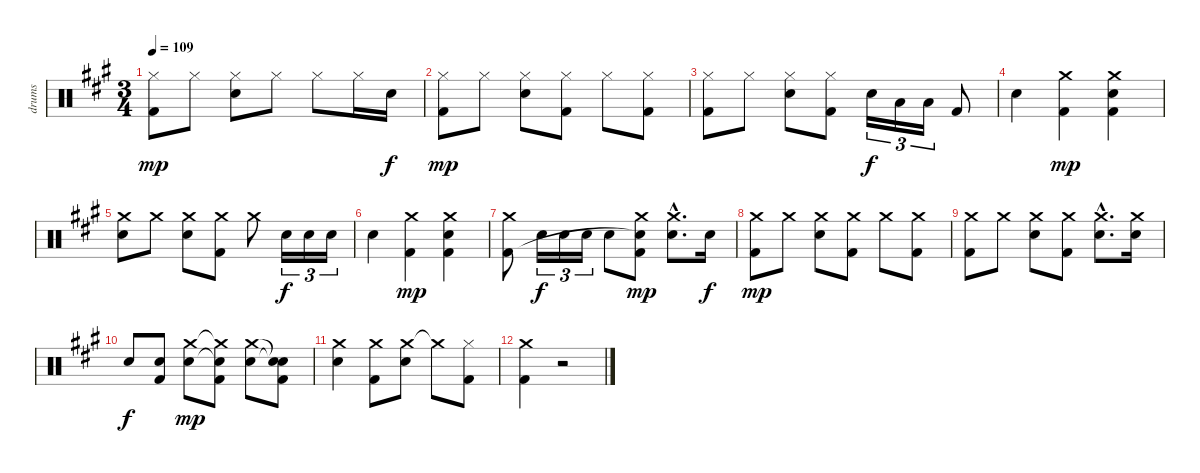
\track ("drums" "drums") {instrument percussion}
\staff {score}
\articulation defaults
\ts (3 4)
\tempo 109
\clef neutral
\ks a
("Hi-Hat (closed)" "Kick (hit) 2").8{dy mp} "Hi-Hat (closed)".8 ("Hi-Hat (closed)" "Snare (hit) 2").8 "Hi-Hat (closed)".8 "Hi-Hat (closed)".8 "Hi-Hat (closed)".16 "Snare (hit) 2".16{dy f} |
("Hi-Hat (closed)" "Kick (hit) 2").8{dy mp} "Hi-Hat (closed)".8 ("Hi-Hat (closed)" "Snare (hit) 2").8 ("Hi-Hat (closed)" "Kick (hit) 2").8 "Hi-Hat (closed)".8 ("Hi-Hat (closed)" "Kick (hit) 2").8 |
("Hi-Hat (closed)" "Kick (hit) 2").8 "Hi-Hat (closed)".8 ("Hi-Hat (closed)" "Snare (hit) 2").8 ("Hi-Hat (closed)" "Kick (hit) 2").8 "Snare (hit) 2".16{tu (3 2) dy f} "Low Tom (hit)".16{tu (3 2)} "Low Tom (hit)".16{tu (3 2)} "Kick (hit) 2".8 |
"Snare (hit) 2".4 ("Crash medium (hit)" "Kick (hit) 2").4{dy mp} ("Crash medium (hit)" "Snare (hit) 2" "Kick (hit) 2").4 |
("Crash medium (hit)" "Snare (hit) 2").8 "Crash medium (hit)".8 ("Crash medium (hit)" "Snare (hit) 2").8 ("Crash medium (hit)" "Kick (hit) 2").8 "Crash medium (hit)".8 "Snare (hit) 2".16{tu (3 2) dy f} "Snare (hit) 2".16{tu (3 2)} "Snare (hit) 2".16{tu (3 2)} |
"Snare (hit) 2".4 ("Crash medium (hit)" "Kick (hit) 2").4{dy mp} ("Crash medium (hit)" "Snare (hit) 2" "Kick (hit) 2").4 |
("Crash medium (hit)" "Kick (hit) 2").8 "Snare (hit) 2".16{tu (3 2) dy f} "Snare (hit) 2".16{tu (3 2)} "Snare (hit) 2".16{tu (3 2)} "Snare (hit) 2".8 ("Crash medium (hit)" "Snare (hit)"{t} "Kick (hit) 2").8{dy mp} ("Crash medium (hit)"{hac} "Snare (hit) 2"{hac}).8{d} "Snare (hit) 2".16{dy f} |
("Crash medium (hit)" "Kick (hit) 2").8{dy mp} "Crash medium (hit)".8 ("Crash medium (hit)" "Snare (hit) 2").8 ("Crash medium (hit)" "Kick (hit) 2").8 "Crash medium (hit)".8 ("Crash medium (hit)" "Kick (hit) 2").8 |
("Crash medium (hit)" "Kick (hit) 2").8 "Crash medium (hit)".8 ("Crash medium (hit)" "Snare (hit) 2").8 ("Crash medium (hit)" "Kick (hit) 2").8 ("Crash medium (hit)"{hac} "Snare (hit) 2"{hac}).8{d} ("Crash medium (hit)" "Snare (hit) 2").16 |
"Snare (hit) 2".8{dy f} ("Snare (hit) 2" "Kick (hit) 2").8 ("Crash medium (hit)" "Snare (hit) 2").8{dy mp} ("Crash medium (hit)"{t} "Snare (hit)"{t} "Kick (hit) 2").8 ("Crash medium (hit)" "Snare (hit) 2").8 ("Snare (hit)"{t} "Snare (hit)"{t} "Kick (hit) 2").8 |
("Crash medium (hit)" "Snare (hit) 2").4 ("Crash medium (hit)" "Kick (hit) 2").8 ("Crash medium (hit)" "Snare (hit) 2").8 "Crash medium (hit)"{t}.8 ("Hi-Hat (closed)" "Kick (hit) 2").8 |
("Crash medium (hit)" "Kick (hit) 2").4 r.2
